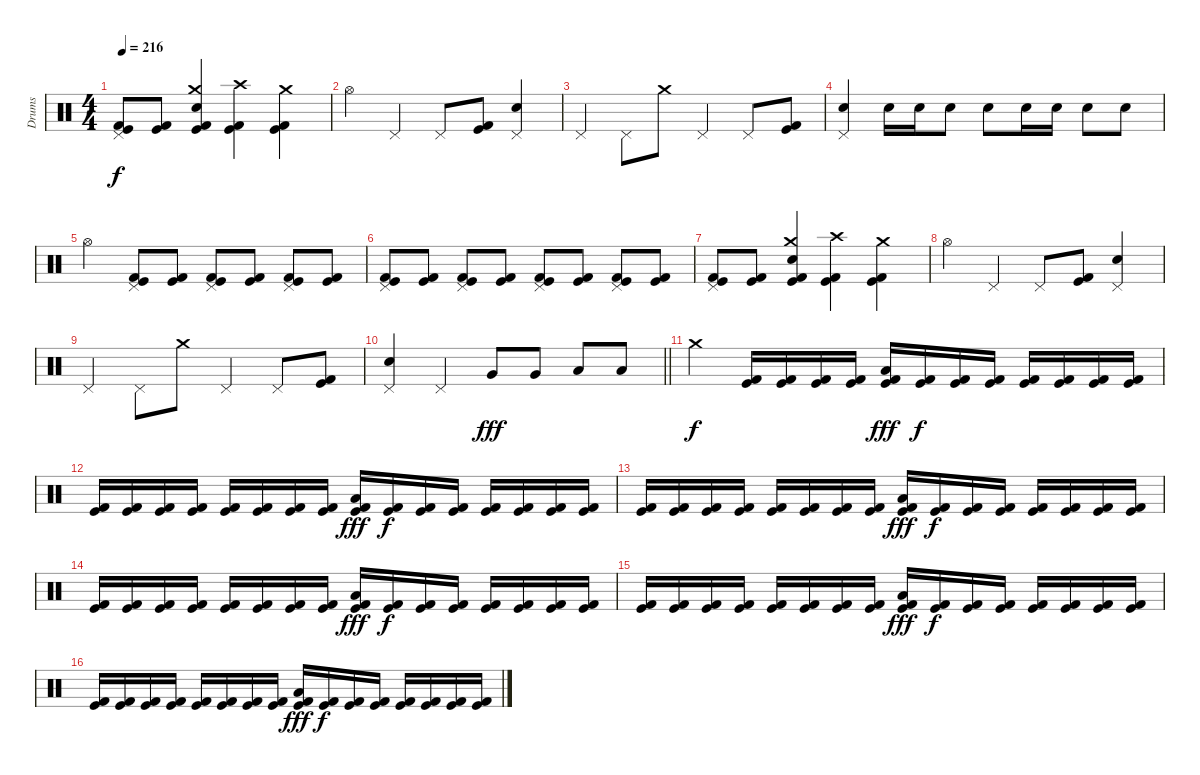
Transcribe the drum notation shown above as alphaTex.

\track ("Drums" "Drums") {instrument percussion}
\staff {score}
\articulation defaults
\ts (4 4)
\tempo 216
\clef neutral
\ks c
("Pedal Hi-Hat (hit)" "Kick (hit)" "Kick (hit) 2").8{dy f} ("Kick (hit)" "Kick (hit) 2").8 ("Crash medium (hit)" "Electric Snare (hit)" "Kick (hit)" "Kick (hit) 2").4 ("Crash high (hit)" "Kick (hit)" "Kick (hit) 2").4 ("Crash medium (hit)" "Kick (hit)" "Kick (hit) 2").4 |
"Hi-Hat (open)".4 "Pedal Hi-Hat (hit)".4 "Pedal Hi-Hat (hit)".8 ("Kick (hit)" "Kick (hit) 2").8 ("Pedal Hi-Hat (hit)" "Electric Snare (hit)").4 |
"Pedal Hi-Hat (hit)".4 "Pedal Hi-Hat (hit)".8 "Crash medium (hit)".8 "Pedal Hi-Hat (hit)".4 "Pedal Hi-Hat (hit)".8 ("Kick (hit)" "Kick (hit) 2").8 |
("Pedal Hi-Hat (hit)" "Electric Snare (hit)").4 "Electric Snare (hit)".16 "Electric Snare (hit)".16 "Electric Snare (hit)".8 "Electric Snare (hit)".8 "Electric Snare (hit)".16 "Electric Snare (hit)".16 "Electric Snare (hit)".8 "Electric Snare (hit)".8 |
"Hi-Hat (open)".4 ("Pedal Hi-Hat (hit)" "Kick (hit)" "Kick (hit) 2").8 ("Kick (hit)" "Kick (hit) 2").8 ("Pedal Hi-Hat (hit)" "Kick (hit)" "Kick (hit) 2").8 ("Kick (hit)" "Kick (hit) 2").8 ("Pedal Hi-Hat (hit)" "Kick (hit)" "Kick (hit) 2").8 ("Kick (hit)" "Kick (hit) 2").8 |
("Pedal Hi-Hat (hit)" "Kick (hit)" "Kick (hit) 2").8 ("Kick (hit)" "Kick (hit) 2").8 ("Pedal Hi-Hat (hit)" "Kick (hit)" "Kick (hit) 2").8 ("Kick (hit)" "Kick (hit) 2").8 ("Pedal Hi-Hat (hit)" "Kick (hit)" "Kick (hit) 2").8 ("Kick (hit)" "Kick (hit) 2").8 ("Pedal Hi-Hat (hit)" "Kick (hit)" "Kick (hit) 2").8 ("Kick (hit)" "Kick (hit) 2").8 |
("Pedal Hi-Hat (hit)" "Kick (hit)" "Kick (hit) 2").8 ("Kick (hit)" "Kick (hit) 2").8 ("Crash medium (hit)" "Electric Snare (hit)" "Kick (hit)" "Kick (hit) 2").4 ("Crash high (hit)" "Kick (hit)" "Kick (hit) 2").4 ("Crash medium (hit)" "Kick (hit)" "Kick (hit) 2").4 |
"Hi-Hat (open)".4 "Pedal Hi-Hat (hit)".4 "Pedal Hi-Hat (hit)".8 ("Kick (hit)" "Kick (hit) 2").8 ("Pedal Hi-Hat (hit)" "Electric Snare (hit)").4 |
"Pedal Hi-Hat (hit)".4 "Pedal Hi-Hat (hit)".8 "Crash medium (hit)".8 "Pedal Hi-Hat (hit)".4 "Pedal Hi-Hat (hit)".8 ("Kick (hit)" "Kick (hit) 2").8 |
\barLineRight lightlight
("Pedal Hi-Hat (hit)" "Electric Snare (hit)").4 "Pedal Hi-Hat (hit)".4 "Very Low Tom (hit)".8{dy fff} "Very Low Tom (hit)".8 "Low Floor Tom (hit)".8 "Low Floor Tom (hit)".8 |
\section ("" "")
"Crash medium (hit)".4{dy f} ("Kick (hit)" "Kick (hit) 2").16 ("Kick (hit)" "Kick (hit) 2").16 ("Kick (hit)" "Kick (hit) 2").16 ("Kick (hit)" "Kick (hit) 2").16 ("Low Tom (hit)" "Kick (hit)" "Kick (hit) 2").16{dy fff} ("Kick (hit)" "Kick (hit) 2").16{dy f} ("Kick (hit)" "Kick (hit) 2").16 ("Kick (hit)" "Kick (hit) 2").16 ("Kick (hit)" "Kick (hit) 2").16 ("Kick (hit)" "Kick (hit) 2").16 ("Kick (hit)" "Kick (hit) 2").16 ("Kick (hit)" "Kick (hit) 2").16 |
("Kick (hit)" "Kick (hit) 2").16 ("Kick (hit)" "Kick (hit) 2").16 ("Kick (hit)" "Kick (hit) 2").16 ("Kick (hit)" "Kick (hit) 2").16 ("Kick (hit)" "Kick (hit) 2").16 ("Kick (hit)" "Kick (hit) 2").16 ("Kick (hit)" "Kick (hit) 2").16 ("Kick (hit)" "Kick (hit) 2").16 ("Low Tom (hit)" "Kick (hit)" "Kick (hit) 2").16{dy fff} ("Kick (hit)" "Kick (hit) 2").16{dy f} ("Kick (hit)" "Kick (hit) 2").16 ("Kick (hit)" "Kick (hit) 2").16 ("Kick (hit)" "Kick (hit) 2").16 ("Kick (hit)" "Kick (hit) 2").16 ("Kick (hit)" "Kick (hit) 2").16 ("Kick (hit)" "Kick (hit) 2").16 |
("Kick (hit)" "Kick (hit) 2").16 ("Kick (hit)" "Kick (hit) 2").16 ("Kick (hit)" "Kick (hit) 2").16 ("Kick (hit)" "Kick (hit) 2").16 ("Kick (hit)" "Kick (hit) 2").16 ("Kick (hit)" "Kick (hit) 2").16 ("Kick (hit)" "Kick (hit) 2").16 ("Kick (hit)" "Kick (hit) 2").16 ("Low Tom (hit)" "Kick (hit)" "Kick (hit) 2").16{dy fff} ("Kick (hit)" "Kick (hit) 2").16{dy f} ("Kick (hit)" "Kick (hit) 2").16 ("Kick (hit)" "Kick (hit) 2").16 ("Kick (hit)" "Kick (hit) 2").16 ("Kick (hit)" "Kick (hit) 2").16 ("Kick (hit)" "Kick (hit) 2").16 ("Kick (hit)" "Kick (hit) 2").16 |
("Kick (hit)" "Kick (hit) 2").16 ("Kick (hit)" "Kick (hit) 2").16 ("Kick (hit)" "Kick (hit) 2").16 ("Kick (hit)" "Kick (hit) 2").16 ("Kick (hit)" "Kick (hit) 2").16 ("Kick (hit)" "Kick (hit) 2").16 ("Kick (hit)" "Kick (hit) 2").16 ("Kick (hit)" "Kick (hit) 2").16 ("Low Tom (hit)" "Kick (hit)" "Kick (hit) 2").16{dy fff} ("Kick (hit)" "Kick (hit) 2").16{dy f} ("Kick (hit)" "Kick (hit) 2").16 ("Kick (hit)" "Kick (hit) 2").16 ("Kick (hit)" "Kick (hit) 2").16 ("Kick (hit)" "Kick (hit) 2").16 ("Kick (hit)" "Kick (hit) 2").16 ("Kick (hit)" "Kick (hit) 2").16 |
("Kick (hit)" "Kick (hit) 2").16 ("Kick (hit)" "Kick (hit) 2").16 ("Kick (hit)" "Kick (hit) 2").16 ("Kick (hit)" "Kick (hit) 2").16 ("Kick (hit)" "Kick (hit) 2").16 ("Kick (hit)" "Kick (hit) 2").16 ("Kick (hit)" "Kick (hit) 2").16 ("Kick (hit)" "Kick (hit) 2").16 ("Low Tom (hit)" "Kick (hit)" "Kick (hit) 2").16{dy fff} ("Kick (hit)" "Kick (hit) 2").16{dy f} ("Kick (hit)" "Kick (hit) 2").16 ("Kick (hit)" "Kick (hit) 2").16 ("Kick (hit)" "Kick (hit) 2").16 ("Kick (hit)" "Kick (hit) 2").16 ("Kick (hit)" "Kick (hit) 2").16 ("Kick (hit)" "Kick (hit) 2").16 |
("Kick (hit)" "Kick (hit) 2").16 ("Kick (hit)" "Kick (hit) 2").16 ("Kick (hit)" "Kick (hit) 2").16 ("Kick (hit)" "Kick (hit) 2").16 ("Kick (hit)" "Kick (hit) 2").16 ("Kick (hit)" "Kick (hit) 2").16 ("Kick (hit)" "Kick (hit) 2").16 ("Kick (hit)" "Kick (hit) 2").16 ("Low Tom (hit)" "Kick (hit)" "Kick (hit) 2").16{dy fff} ("Kick (hit)" "Kick (hit) 2").16{dy f} ("Kick (hit)" "Kick (hit) 2").16 ("Kick (hit)" "Kick (hit) 2").16 ("Kick (hit)" "Kick (hit) 2").16 ("Kick (hit)" "Kick (hit) 2").16 ("Kick (hit)" "Kick (hit) 2").16 ("Kick (hit)" "Kick (hit) 2").16
